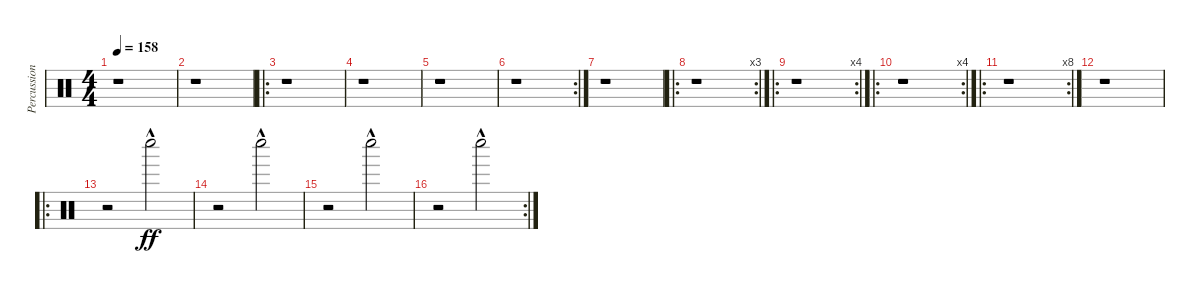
\track ("Percussion" "Percussion") {instrument percussion}
\staff {score}
\articulation defaults
\ts (4 4)
\tempo 158
\clef neutral
\ks c
r.1{dy ff} |
r.1 |
\ro
r.1 |
r.1 |
r.1 |
\rc 2
r.1 |
r.1 |
\ro
\rc 3
r.1 |
\ro
\rc 4
r.1 |
\ro
\rc 4
r.1 |
\ro
\rc 8
r.1 |
r.1 |
\ro
r.2 "Whistle low (hit)"{hac}.2 |
r.2 "Whistle low (hit)"{hac}.2 |
r.2 "Whistle low (hit)"{hac}.2 |
\rc 2
r.2 "Whistle low (hit)"{hac}.2
